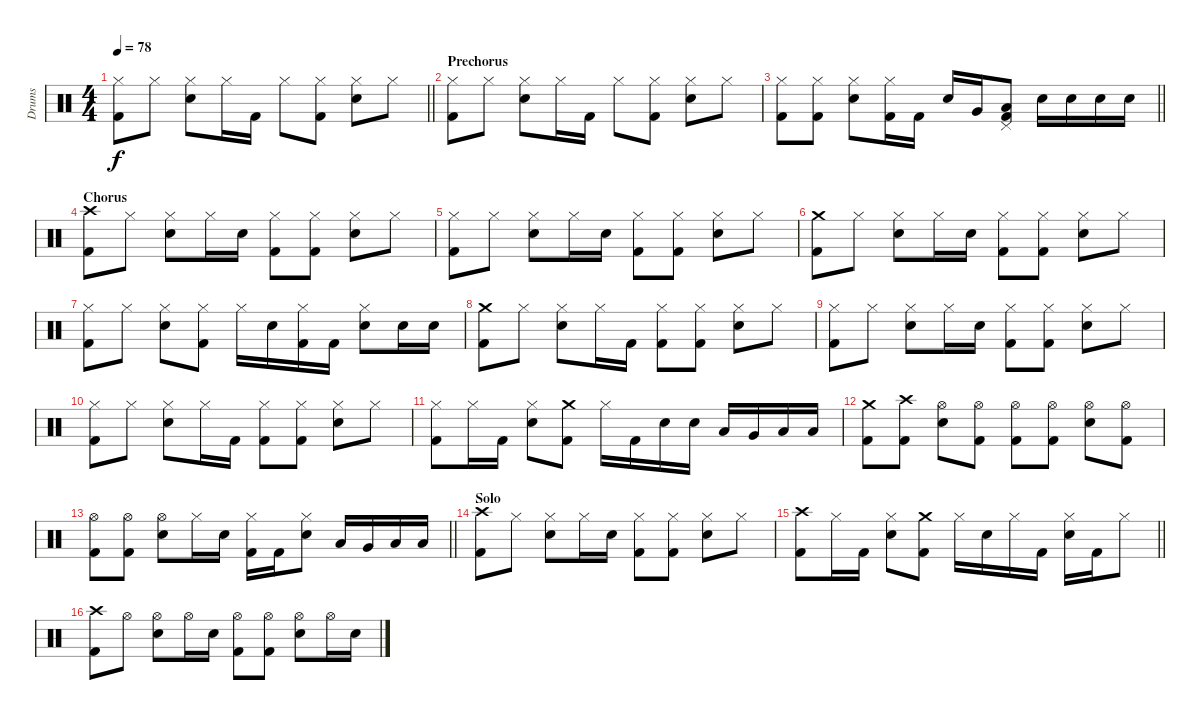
\track ("Drums" "Drums") {instrument percussion}
\staff {score}
\articulation defaults
\ts (4 4)
\tempo 78
\clef neutral
\barLineRight lightlight
\ks c
("Hi-Hat (closed)" "Kick (hit) 2").8{dy f} "Hi-Hat (closed)".8 ("Hi-Hat (closed)" "Electric Snare (hit)").8 "Hi-Hat (closed)".16 "Kick (hit) 2".16 "Hi-Hat (closed)".8 ("Hi-Hat (closed)" "Kick (hit) 2").8 ("Hi-Hat (closed)" "Electric Snare (hit)").8 "Hi-Hat (closed)".8 |
\section ("" "Prechorus")
("Hi-Hat (closed)" "Kick (hit) 2").8 "Hi-Hat (closed)".8 ("Hi-Hat (closed)" "Electric Snare (hit)").8 "Hi-Hat (closed)".16 "Kick (hit) 2".16 "Hi-Hat (closed)".8 ("Hi-Hat (closed)" "Kick (hit) 2").8 ("Hi-Hat (closed)" "Electric Snare (hit)").8 "Hi-Hat (closed)".8 |
\barLineRight lightlight
("Hi-Hat (closed)" "Kick (hit) 2").8 ("Hi-Hat (closed)" "Kick (hit) 2").8 ("Hi-Hat (closed)" "Electric Snare (hit)").8 ("Hi-Hat (closed)" "Kick (hit) 2").16 "Kick (hit) 2".16 "Electric Snare (hit)".16 "Very Low Tom (hit)".16 ("Pedal Hi-Hat (hit)" "Low Floor Tom (hit)" "Kick (hit) 2").8 "Electric Snare (hit)".16 "Electric Snare (hit)".16 "Electric Snare (hit)".16 "Electric Snare (hit)".16 |
\section ("" "Chorus")
("Crash high (hit)" "Kick (hit) 2").8 "Hi-Hat (closed)".8 ("Hi-Hat (closed)" "Electric Snare (hit)").8 "Hi-Hat (closed)".16 "Electric Snare (hit)".16 ("Hi-Hat (closed)" "Kick (hit) 2").8 ("Hi-Hat (closed)" "Kick (hit) 2").8 ("Hi-Hat (closed)" "Electric Snare (hit)").8 "Hi-Hat (closed)".8 |
("Hi-Hat (closed)" "Kick (hit) 2").8 "Hi-Hat (closed)".8 ("Hi-Hat (closed)" "Electric Snare (hit)").8 "Hi-Hat (closed)".16 "Electric Snare (hit)".16 ("Hi-Hat (closed)" "Kick (hit) 2").8 ("Hi-Hat (closed)" "Kick (hit) 2").8 ("Hi-Hat (closed)" "Electric Snare (hit)").8 "Hi-Hat (closed)".8 |
("Crash medium (hit)" "Kick (hit) 2").8 "Hi-Hat (closed)".8 ("Hi-Hat (closed)" "Electric Snare (hit)").8 "Hi-Hat (closed)".16 "Electric Snare (hit)".16 ("Hi-Hat (closed)" "Kick (hit) 2").8 ("Hi-Hat (closed)" "Kick (hit) 2").8 ("Hi-Hat (closed)" "Electric Snare (hit)").8 "Hi-Hat (closed)".8 |
("Hi-Hat (closed)" "Kick (hit) 2").8 "Hi-Hat (closed)".8 ("Hi-Hat (closed)" "Electric Snare (hit)").8 ("Hi-Hat (closed)" "Kick (hit) 2").8 "Hi-Hat (closed)".16 "Electric Snare (hit)".16 ("Hi-Hat (closed)" "Kick (hit) 2").16 "Kick (hit) 2".16 ("Hi-Hat (closed)" "Electric Snare (hit)").8 "Electric Snare (hit)".16 "Electric Snare (hit)".16 |
("Crash medium (hit)" "Kick (hit) 2").8 "Hi-Hat (closed)".8 ("Hi-Hat (closed)" "Electric Snare (hit)").8 "Hi-Hat (closed)".16 "Kick (hit) 2".16 ("Hi-Hat (closed)" "Kick (hit) 2").8 ("Hi-Hat (closed)" "Kick (hit) 2").8 ("Hi-Hat (closed)" "Electric Snare (hit)").8 "Hi-Hat (closed)".8 |
("Hi-Hat (closed)" "Kick (hit) 2").8 "Hi-Hat (closed)".8 ("Hi-Hat (closed)" "Electric Snare (hit)").8 "Hi-Hat (closed)".16 "Electric Snare (hit)".16 ("Hi-Hat (closed)" "Kick (hit) 2").8 ("Hi-Hat (closed)" "Kick (hit) 2").8 ("Hi-Hat (closed)" "Electric Snare (hit)").8 "Hi-Hat (closed)".8 |
("Hi-Hat (closed)" "Kick (hit) 2").8 "Hi-Hat (closed)".8 ("Hi-Hat (closed)" "Electric Snare (hit)").8 "Hi-Hat (closed)".16 "Kick (hit) 2".16 ("Hi-Hat (closed)" "Kick (hit) 2").8 ("Hi-Hat (closed)" "Kick (hit) 2").8 ("Hi-Hat (closed)" "Electric Snare (hit)").8 "Hi-Hat (closed)".8 |
("Hi-Hat (closed)" "Kick (hit) 2").8 "Hi-Hat (closed)".16 "Kick (hit) 2".16 ("Hi-Hat (closed)" "Electric Snare (hit)").8 ("Crash medium (hit)" "Kick (hit) 2").8 "Hi-Hat (closed)".16 "Kick (hit) 2".16 "Electric Snare (hit)".16 "Electric Snare (hit)".16 "Low Tom (hit)".16 "Very Low Tom (hit)".16 "Low Tom (hit)".16 "Low Floor Tom (hit)".16 |
("Crash medium (hit)" "Kick (hit) 2").8 ("Crash high (hit)" "Kick (hit) 2").8 ("Hi-Hat (open)" "Electric Snare (hit)").8 ("Hi-Hat (open)" "Kick (hit) 2").8 ("Hi-Hat (open)" "Kick (hit) 2").8 ("Hi-Hat (open)" "Kick (hit) 2").8 ("Hi-Hat (open)" "Electric Snare (hit)").8 ("Hi-Hat (open)" "Kick (hit) 2").8 |
\barLineRight lightlight
("Hi-Hat (open)" "Kick (hit) 2").8 ("Hi-Hat (open)" "Kick (hit) 2").8 ("Hi-Hat (open)" "Electric Snare (hit)").8 "Hi-Hat (closed)".16 "Electric Snare (hit)".16 ("Hi-Hat (closed)" "Kick (hit) 2").16 "Kick (hit) 2".16 ("Hi-Hat (closed)" "Electric Snare (hit)").8 "Low Tom (hit)".16 "Very Low Tom (hit)".16 "Low Floor Tom (hit)".16 "Low Floor Tom (hit)".16 |
\section ("" "Solo")
("Crash high (hit)" "Kick (hit) 2").8 "Hi-Hat (closed)".8 ("Hi-Hat (closed)" "Electric Snare (hit)").8 "Hi-Hat (closed)".16 "Electric Snare (hit)".16 ("Hi-Hat (closed)" "Kick (hit) 2").8 ("Hi-Hat (closed)" "Kick (hit) 2").8 ("Hi-Hat (closed)" "Electric Snare (hit)").8 "Hi-Hat (closed)".8 |
\barLineRight lightlight
("Crash high (hit)" "Kick (hit) 2").8 "Hi-Hat (closed)".16 "Kick (hit) 2".16 ("Hi-Hat (closed)" "Electric Snare (hit)").8 ("Crash medium (hit)" "Kick (hit) 2").8 "Hi-Hat (closed)".16 "Electric Snare (hit)".16 "Hi-Hat (closed)".16 "Kick (hit) 2".16 ("Hi-Hat (closed)" "Electric Snare (hit)").16 "Kick (hit) 2".16 "Hi-Hat (closed)".8 |
("Crash high (hit)" "Kick (hit) 2").8 "Hi-Hat (open)".8 ("Hi-Hat (open)" "Electric Snare (hit)").8 "Hi-Hat (open)".16 "Electric Snare (hit)".16 ("Hi-Hat (open)" "Kick (hit) 2").8 ("Hi-Hat (open)" "Kick (hit) 2").8 ("Hi-Hat (open)" "Electric Snare (hit)").8 "Hi-Hat (open)".16 "Electric Snare (hit)".16
